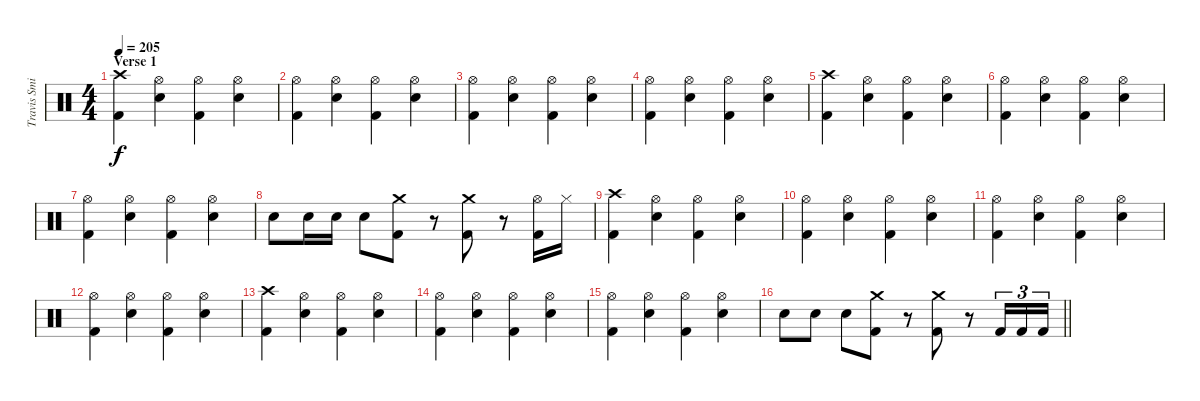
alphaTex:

\track ("Travis Smith" "Travis Smi") {instrument percussion}
\staff {score}
\articulation defaults
\ts (4 4)
\section ("" "Verse 1")
\tempo 205
\clef neutral
\ks c
("Crash high (hit)" "Kick (hit) 2").4{dy f} ("Hi-Hat (open)" "Snare (hit) 2").4 ("Hi-Hat (open)" "Kick (hit) 2").4 ("Hi-Hat (open)" "Snare (hit) 2").4 |
("Hi-Hat (open)" "Kick (hit) 2").4 ("Hi-Hat (open)" "Snare (hit) 2").4 ("Hi-Hat (open)" "Kick (hit) 2").4 ("Hi-Hat (open)" "Snare (hit) 2").4 |
("Hi-Hat (open)" "Kick (hit) 2").4 ("Hi-Hat (open)" "Snare (hit) 2").4 ("Hi-Hat (open)" "Kick (hit) 2").4 ("Hi-Hat (open)" "Snare (hit) 2").4 |
("Hi-Hat (open)" "Kick (hit) 2").4 ("Hi-Hat (open)" "Snare (hit) 2").4 ("Hi-Hat (open)" "Kick (hit) 2").4 ("Hi-Hat (open)" "Snare (hit) 2").4 |
("Crash high (hit)" "Kick (hit) 2").4 ("Hi-Hat (open)" "Snare (hit) 2").4 ("Hi-Hat (open)" "Kick (hit) 2").4 ("Hi-Hat (open)" "Snare (hit) 2").4 |
("Hi-Hat (open)" "Kick (hit) 2").4 ("Hi-Hat (open)" "Snare (hit) 2").4 ("Hi-Hat (open)" "Kick (hit) 2").4 ("Hi-Hat (open)" "Snare (hit) 2").4 |
("Hi-Hat (open)" "Kick (hit) 2").4 ("Hi-Hat (open)" "Snare (hit) 2").4 ("Hi-Hat (open)" "Kick (hit) 2").4 ("Hi-Hat (open)" "Snare (hit) 2").4 |
"Snare (hit) 2".8 "Snare (hit) 2".16 "Snare (hit) 2".16 "Snare (hit) 2".8 ("Crash medium (hit)" "Kick (hit) 2").8 r.8 ("Crash medium (hit)" "Kick (hit) 2").8 r.8 ("Hi-Hat (open)" "Kick (hit) 2").16 "Hi-Hat (closed)".16 |
("Crash high (hit)" "Kick (hit) 2").4 ("Hi-Hat (open)" "Snare (hit) 2").4 ("Hi-Hat (open)" "Kick (hit) 2").4 ("Hi-Hat (open)" "Snare (hit) 2").4 |
("Hi-Hat (open)" "Kick (hit) 2").4 ("Hi-Hat (open)" "Snare (hit) 2").4 ("Hi-Hat (open)" "Kick (hit) 2").4 ("Hi-Hat (open)" "Snare (hit) 2").4 |
("Hi-Hat (open)" "Kick (hit) 2").4 ("Hi-Hat (open)" "Snare (hit) 2").4 ("Hi-Hat (open)" "Kick (hit) 2").4 ("Hi-Hat (open)" "Snare (hit) 2").4 |
("Hi-Hat (open)" "Kick (hit) 2").4 ("Hi-Hat (open)" "Snare (hit) 2").4 ("Hi-Hat (open)" "Kick (hit) 2").4 ("Hi-Hat (open)" "Snare (hit) 2").4 |
("Crash high (hit)" "Kick (hit) 2").4 ("Hi-Hat (open)" "Snare (hit) 2").4 ("Hi-Hat (open)" "Kick (hit) 2").4 ("Hi-Hat (open)" "Snare (hit) 2").4 |
("Hi-Hat (open)" "Kick (hit) 2").4 ("Hi-Hat (open)" "Snare (hit) 2").4 ("Hi-Hat (open)" "Kick (hit) 2").4 ("Hi-Hat (open)" "Snare (hit) 2").4 |
("Hi-Hat (open)" "Kick (hit) 2").4 ("Hi-Hat (open)" "Snare (hit) 2").4 ("Hi-Hat (open)" "Kick (hit) 2").4 ("Hi-Hat (open)" "Snare (hit) 2").4 |
\barLineRight lightlight "Snare (hit) 2".8 "Snare (hit) 2".8 "Snare (hit) 2".8
("Crash medium (hit)" "Kick (hit) 2").8 r.8 ("Crash medium (hit)" "Kick (hit) 2").8 r.8 "Kick (hit) 2".16{tu (3 2)} "Kick (hit) 2".16{tu (3 2)} "Kick (hit) 2".16{tu (3 2)}
